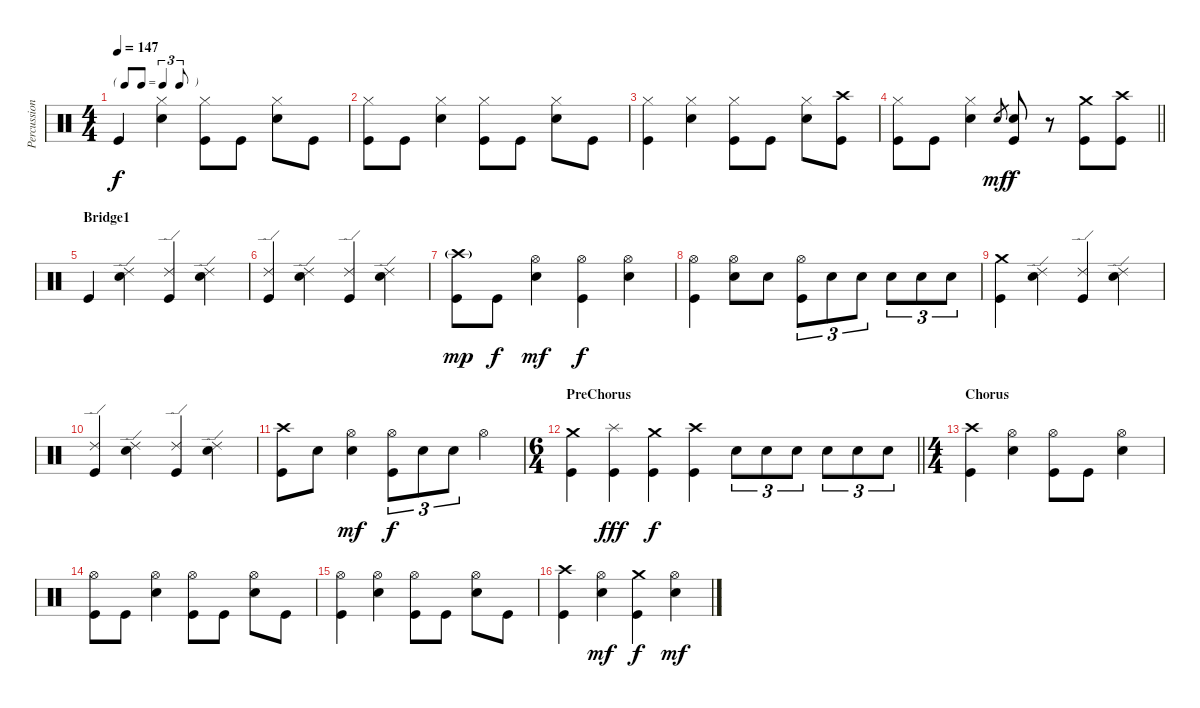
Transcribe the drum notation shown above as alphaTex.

\track ("Percussion" "Percussion") {instrument percussion}
\staff {score}
\articulation defaults
\ts (4 4)
\tf triplet8th
\tempo 147
\clef neutral
\ks c "Kick (hit)".4{dy f}
("Hi-Hat (closed)" "Snare (hit) 2").4 ("Kick (hit)" "Hi-Hat (closed)").8 "Kick (hit)".8 ("Hi-Hat (closed)" "Snare (hit) 2").8 "Kick (hit)".8 |
("Kick (hit)" "Hi-Hat (closed)").8 "Kick (hit)".8 ("Hi-Hat (closed)" "Snare (hit) 2").4 ("Kick (hit)" "Hi-Hat (closed)").8 "Kick (hit)".8 ("Hi-Hat (closed)" "Snare (hit) 2").8 "Kick (hit)".8 |
("Kick (hit)" "Hi-Hat (closed)").4 ("Hi-Hat (closed)" "Snare (hit) 2").4 ("Kick (hit)" "Hi-Hat (closed)").8 "Kick (hit)".8 ("Hi-Hat (closed)" "Snare (hit) 2").8 ("Kick (hit)" "Crash high (hit)").8 |
\barLineRight lightlight
("Kick (hit)" "Hi-Hat (closed)").8 "Kick (hit)".8 ("Hi-Hat (closed)" "Snare (hit) 2").4 "Snare (hit) 2".8{gr dy mf} ("Kick (hit)" "Snare (hit) 2").8{dy f} r.8 ("Kick (hit)" "Crash medium (hit)").8 ("Kick (hit)" "Crash high (hit)").8 |
\section ("" "Bridge1")
"Kick (hit)".4 ("Ride (edge) 2" "Snare (hit) 2").4 ("Kick (hit)" "Ride (edge) 2").4 ("Ride (edge) 2" "Snare (hit) 2").4 |
("Kick (hit)" "Ride (edge) 2").4 ("Ride (edge) 2" "Snare (hit) 2").4 ("Kick (hit)" "Ride (edge) 2").4 ("Ride (edge) 2" "Snare (hit) 2").4 |
("Kick (hit)" "Crash high (hit)"{g}).8{dy mp} "Kick (hit)".8{dy f} ("Hi-Hat (open)" "Snare (hit) 2").4{dy mf} ("Kick (hit)" "Hi-Hat (open)").4{dy f} ("Hi-Hat (open)" "Snare (hit) 2").4 |
("Kick (hit)" "Hi-Hat (open)").4 ("Hi-Hat (open)" "Snare (hit) 2").8 "Snare (hit) 2".8 ("Kick (hit)" "Hi-Hat (open)").8{tu (3 2)} "Snare (hit) 2".8{tu (3 2)} "Snare (hit) 2".8{tu (3 2)} "Snare (hit) 2".8{tu (3 2)} "Snare (hit) 2".8{tu (3 2)} "Snare (hit) 2".8{tu (3 2)} |
("Kick (hit)" "Crash medium (hit)").4 ("Ride (edge) 2" "Snare (hit) 2").4 ("Kick (hit)" "Ride (edge) 2").4 ("Ride (edge) 2" "Snare (hit) 2").4 |
("Kick (hit)" "Ride (edge) 2").4 ("Ride (edge) 2" "Snare (hit) 2").4 ("Kick (hit)" "Ride (edge) 2").4 ("Ride (edge) 2" "Snare (hit) 2").4 |
("Kick (hit)" "Crash high (hit)").8 "Snare (hit) 2".8 ("Hi-Hat (open)" "Snare (hit) 2").4{dy mf} ("Kick (hit)" "Hi-Hat (open)").8{tu (3 2) dy f} "Snare (hit) 2".8{tu (3 2)} "Snare (hit) 2".8{tu (3 2)} "Hi-Hat (open)".4 |
\ts (6 4)
\section ("" "PreChorus")
\barLineRight lightlight
("Kick (hit)" "Crash medium (hit)").4 ("Kick (hit)" "Splash (hit)").4{dy fff} ("Kick (hit)" "Crash medium (hit)").4{dy f} ("Kick (hit)" "Crash high (hit)").4 "Snare (hit) 2".8{tu (3 2)} "Snare (hit) 2".8{tu (3 2)} "Snare (hit) 2".8{tu (3 2)} "Snare (hit) 2".8{tu (3 2)} "Snare (hit) 2".8{tu (3 2)} "Snare (hit) 2".8{tu (3 2)} |
\ts (4 4)
\section ("" "Chorus")
("Kick (hit)" "Crash high (hit)").4 ("Hi-Hat (open)" "Snare (hit) 2").4 ("Kick (hit)" "Hi-Hat (open)").8 "Kick (hit)".8 ("Hi-Hat (open)" "Snare (hit) 2").4 |
("Kick (hit)" "Hi-Hat (open)").8 "Kick (hit)".8 ("Hi-Hat (open)" "Snare (hit) 2").4 ("Kick (hit)" "Hi-Hat (open)").8 "Kick (hit)".8 ("Hi-Hat (open)" "Snare (hit) 2").8 "Kick (hit)".8 |
("Kick (hit)" "Hi-Hat (open)").4 ("Hi-Hat (open)" "Snare (hit) 2").4 ("Kick (hit)" "Hi-Hat (open)").8 "Kick (hit)".8 ("Hi-Hat (open)" "Snare (hit) 2").8 "Kick (hit)".8 |
("Kick (hit)" "Crash high (hit)").4 ("Hi-Hat (open)" "Snare (hit) 2").4{dy mf} ("Kick (hit)" "Crash medium (hit)").4{dy f} ("Hi-Hat (open)" "Snare (hit) 2").4{dy mf}
